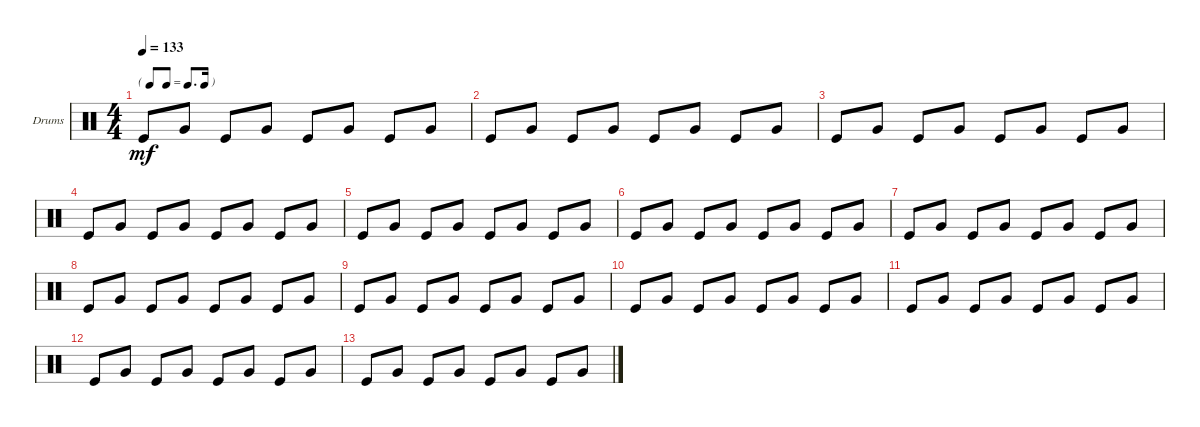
\defaultSystemsLayout 4
\bracketExtendMode groupsimilarinstruments
\firstSystemTrackNameOrientation horizontal
\otherSystemsTrackNameOrientation horizontal
\track ("Drumkit" "Drums") {instrument percussion}
\staff {score}
\articulation defaults
\ts (4 4)
\tf dotted8th
\tempo 133
\clef neutral
\ks c "Kick (hit)".8{dy mf} "Very Low Tom (hit)".8 "Kick (hit)".8 "Very Low Tom (hit)".8 "Kick (hit)".8 "Very Low Tom (hit)".8 "Kick (hit)".8 "Very Low Tom (hit)".8
|
"Kick (hit)".8 "Very Low Tom (hit)".8 "Kick (hit)".8 "Very Low Tom (hit)".8 "Kick (hit)".8 "Very Low Tom (hit)".8 "Kick (hit)".8 "Very Low Tom (hit)".8 |
"Kick (hit)".8 "Very Low Tom (hit)".8 "Kick (hit)".8 "Very Low Tom (hit)".8 "Kick (hit)".8 "Very Low Tom (hit)".8 "Kick (hit)".8 "Very Low Tom (hit)".8 |
"Kick (hit)".8 "Very Low Tom (hit)".8 "Kick (hit)".8 "Very Low Tom (hit)".8 "Kick (hit)".8 "Very Low Tom (hit)".8 "Kick (hit)".8 "Very Low Tom (hit)".8 |
"Kick (hit)".8 "Very Low Tom (hit)".8 "Kick (hit)".8 "Very Low Tom (hit)".8 "Kick (hit)".8 "Very Low Tom (hit)".8 "Kick (hit)".8 "Very Low Tom (hit)".8 |
"Kick (hit)".8 "Very Low Tom (hit)".8 "Kick (hit)".8 "Very Low Tom (hit)".8 "Kick (hit)".8 "Very Low Tom (hit)".8 "Kick (hit)".8 "Very Low Tom (hit)".8 |
"Kick (hit)".8 "Very Low Tom (hit)".8 "Kick (hit)".8 "Very Low Tom (hit)".8 "Kick (hit)".8 "Very Low Tom (hit)".8 "Kick (hit)".8 "Very Low Tom (hit)".8 |
"Kick (hit)".8 "Very Low Tom (hit)".8 "Kick (hit)".8 "Very Low Tom (hit)".8 "Kick (hit)".8 "Very Low Tom (hit)".8 "Kick (hit)".8 "Very Low Tom (hit)".8 |
"Kick (hit)".8 "Very Low Tom (hit)".8 "Kick (hit)".8 "Very Low Tom (hit)".8 "Kick (hit)".8 "Very Low Tom (hit)".8 "Kick (hit)".8 "Very Low Tom (hit)".8 |
"Kick (hit)".8 "Very Low Tom (hit)".8 "Kick (hit)".8 "Very Low Tom (hit)".8 "Kick (hit)".8 "Very Low Tom (hit)".8 "Kick (hit)".8 "Very Low Tom (hit)".8 |
"Kick (hit)".8 "Very Low Tom (hit)".8 "Kick (hit)".8 "Very Low Tom (hit)".8 "Kick (hit)".8 "Very Low Tom (hit)".8 "Kick (hit)".8 "Very Low Tom (hit)".8 |
"Kick (hit)".8 "Very Low Tom (hit)".8 "Kick (hit)".8 "Very Low Tom (hit)".8 "Kick (hit)".8 "Very Low Tom (hit)".8 "Kick (hit)".8 "Very Low Tom (hit)".8 |
"Kick (hit)".8 "Very Low Tom (hit)".8 "Kick (hit)".8 "Very Low Tom (hit)".8 "Kick (hit)".8 "Very Low Tom (hit)".8 "Kick (hit)".8 "Very Low Tom (hit)".8
